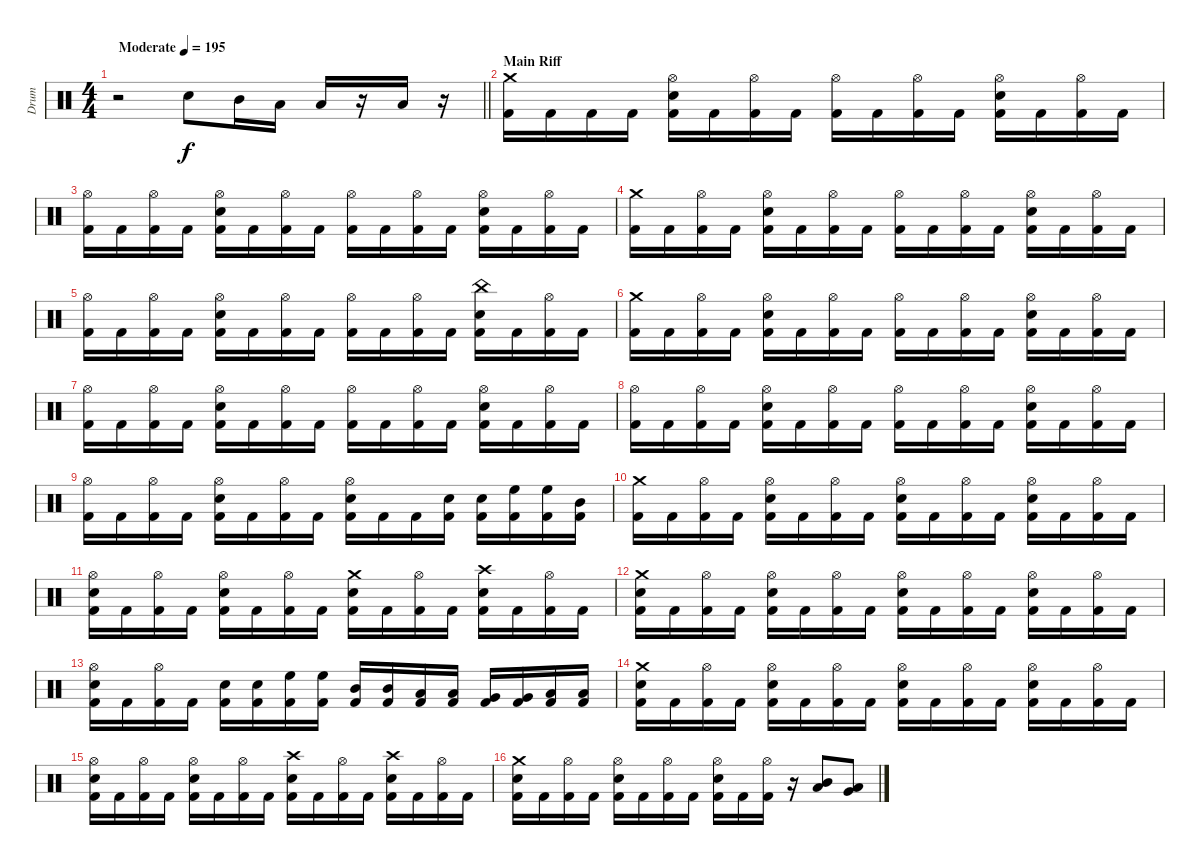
\track ("Drum" "Drum") {instrument percussion}
\staff {score}
\articulation defaults
\ts (4 4)
\tempo (195 "Moderate")
\clef neutral
\barLineRight lightlight
\ks c
r.2{dy f} "Snare (hit) 2".8 "Mid Tom (hit)".16 "Low Tom (hit)".16 "Low Floor Tom (hit)".16 r.16 "Low Floor Tom (hit)".16 r.16 |
\section ("" "Main Riff")
("Crash medium (hit)" "Kick (hit) 2").16 "Kick (hit) 2".16 "Kick (hit) 2".16 "Kick (hit) 2".16 ("Hi-Hat (open)" "Snare (hit) 2" "Kick (hit) 2").16 "Kick (hit) 2".16 ("Hi-Hat (open)" "Kick (hit) 2").16 "Kick (hit) 2".16 ("Hi-Hat (open)" "Kick (hit) 2").16 "Kick (hit) 2".16 ("Hi-Hat (open)" "Kick (hit) 2").16 "Kick (hit) 2".16 ("Hi-Hat (open)" "Snare (hit) 2" "Kick (hit) 2").16 "Kick (hit) 2".16 ("Hi-Hat (open)" "Kick (hit) 2").16 "Kick (hit) 2".16 |
("Hi-Hat (open)" "Kick (hit) 2").16 "Kick (hit) 2".16 ("Hi-Hat (open)" "Kick (hit) 2").16 "Kick (hit) 2".16 ("Hi-Hat (open)" "Snare (hit) 2" "Kick (hit) 2").16 "Kick (hit) 2".16 ("Hi-Hat (open)" "Kick (hit) 2").16 "Kick (hit) 2".16 ("Hi-Hat (open)" "Kick (hit) 2").16 "Kick (hit) 2".16 ("Hi-Hat (open)" "Kick (hit) 2").16 "Kick (hit) 2".16 ("Hi-Hat (open)" "Snare (hit) 2" "Kick (hit) 2").16 "Kick (hit) 2".16 ("Hi-Hat (open)" "Kick (hit) 2").16 "Kick (hit) 2".16 |
("Crash medium (hit)" "Kick (hit) 2").16 "Kick (hit) 2".16 ("Hi-Hat (open)" "Kick (hit) 2").16 "Kick (hit) 2".16 ("Hi-Hat (open)" "Snare (hit) 2" "Kick (hit) 2").16 "Kick (hit) 2".16 ("Hi-Hat (open)" "Kick (hit) 2").16 "Kick (hit) 2".16 ("Hi-Hat (open)" "Kick (hit) 2").16 "Kick (hit) 2".16 ("Hi-Hat (open)" "Kick (hit) 2").16 "Kick (hit) 2".16 ("Hi-Hat (open)" "Snare (hit) 2" "Kick (hit) 2").16 "Kick (hit) 2".16 ("Hi-Hat (open)" "Kick (hit) 2").16 "Kick (hit) 2".16 |
("Hi-Hat (open)" "Kick (hit) 2").16 "Kick (hit) 2".16 ("Hi-Hat (open)" "Kick (hit) 2").16 "Kick (hit) 2".16 ("Hi-Hat (open)" "Snare (hit) 2" "Kick (hit) 2").16 "Kick (hit) 2".16 ("Hi-Hat (open)" "Kick (hit) 2").16 "Kick (hit) 2".16 ("Hi-Hat (open)" "Kick (hit) 2").16 "Kick (hit) 2".16 ("Hi-Hat (open)" "Kick (hit) 2").16 "Kick (hit) 2".16 ("China (hit)" "Snare (hit) 2" "Kick (hit) 2").16 "Kick (hit) 2".16 ("Hi-Hat (open)" "Kick (hit) 2").16 "Kick (hit) 2".16 |
("Crash medium (hit)" "Kick (hit) 2").16 "Kick (hit) 2".16 ("Hi-Hat (open)" "Kick (hit) 2").16 "Kick (hit) 2".16 ("Hi-Hat (open)" "Snare (hit) 2" "Kick (hit) 2").16 "Kick (hit) 2".16 ("Hi-Hat (open)" "Kick (hit) 2").16 "Kick (hit) 2".16 ("Hi-Hat (open)" "Kick (hit) 2").16 "Kick (hit) 2".16 ("Hi-Hat (open)" "Kick (hit) 2").16 "Kick (hit) 2".16 ("Hi-Hat (open)" "Snare (hit) 2" "Kick (hit) 2").16 "Kick (hit) 2".16 ("Hi-Hat (open)" "Kick (hit) 2").16 "Kick (hit) 2".16 |
("Hi-Hat (open)" "Kick (hit) 2").16 "Kick (hit) 2".16 ("Hi-Hat (open)" "Kick (hit) 2").16 "Kick (hit) 2".16 ("Hi-Hat (open)" "Snare (hit) 2" "Kick (hit) 2").16 "Kick (hit) 2".16 ("Hi-Hat (open)" "Kick (hit) 2").16 "Kick (hit) 2".16 ("Hi-Hat (open)" "Kick (hit) 2").16 "Kick (hit) 2".16 ("Hi-Hat (open)" "Kick (hit) 2").16 "Kick (hit) 2".16 ("Hi-Hat (open)" "Snare (hit) 2" "Kick (hit) 2").16 "Kick (hit) 2".16 ("Hi-Hat (open)" "Kick (hit) 2").16 "Kick (hit) 2".16 |
("Hi-Hat (open)" "Kick (hit) 2").16 "Kick (hit) 2".16 ("Hi-Hat (open)" "Kick (hit) 2").16 "Kick (hit) 2".16 ("Hi-Hat (open)" "Snare (hit) 2" "Kick (hit) 2").16 "Kick (hit) 2".16 ("Hi-Hat (open)" "Kick (hit) 2").16 "Kick (hit) 2".16 ("Hi-Hat (open)" "Kick (hit) 2").16 "Kick (hit) 2".16 ("Hi-Hat (open)" "Kick (hit) 2").16 "Kick (hit) 2".16 ("Hi-Hat (open)" "Snare (hit) 2" "Kick (hit) 2").16 "Kick (hit) 2".16 ("Hi-Hat (open)" "Kick (hit) 2").16 "Kick (hit) 2".16 |
("Hi-Hat (open)" "Kick (hit) 2").16 "Kick (hit) 2".16 ("Hi-Hat (open)" "Kick (hit) 2").16 "Kick (hit) 2".16 ("Hi-Hat (open)" "Snare (hit) 2" "Kick (hit) 2").16 "Kick (hit) 2".16 ("Hi-Hat (open)" "Kick (hit) 2").16 "Kick (hit) 2".16 ("Hi-Hat (open)" "Snare (hit) 2" "Kick (hit) 2").16 "Kick (hit) 2".16 "Kick (hit) 2".16 ("Snare (hit) 2" "Kick (hit) 2").16 ("Snare (hit) 2" "Kick (hit) 2").16 ("High Floor Tom (hit)" "Kick (hit) 2").16 ("High Floor Tom (hit)" "Kick (hit) 2").16 ("Mid Tom (hit)" "Kick (hit) 2").16 |
("Crash medium (hit)" "Kick (hit) 2").16 "Kick (hit) 2".16 ("Hi-Hat (open)" "Kick (hit) 2").16 "Kick (hit) 2".16 ("Hi-Hat (open)" "Snare (hit) 2" "Kick (hit) 2").16 "Kick (hit) 2".16 ("Hi-Hat (open)" "Kick (hit) 2").16 "Kick (hit) 2".16 ("Hi-Hat (open)" "Snare (hit) 2" "Kick (hit) 2").16 "Kick (hit) 2".16 ("Hi-Hat (open)" "Kick (hit) 2").16 "Kick (hit) 2".16 ("Hi-Hat (open)" "Snare (hit) 2" "Kick (hit) 2").16 "Kick (hit) 2".16 ("Hi-Hat (open)" "Kick (hit) 2").16 "Kick (hit) 2".16 |
("Hi-Hat (open)" "Snare (hit) 2" "Kick (hit) 2").16 "Kick (hit) 2".16 ("Hi-Hat (open)" "Kick (hit) 2").16 "Kick (hit) 2".16 ("Hi-Hat (open)" "Snare (hit) 2" "Kick (hit) 2").16 "Kick (hit) 2".16 ("Hi-Hat (open)" "Kick (hit) 2").16 "Kick (hit) 2".16 ("Crash medium (hit)" "Snare (hit) 2" "Kick (hit) 2").16 "Kick (hit) 2".16 ("Hi-Hat (open)" "Kick (hit) 2").16 "Kick (hit) 2".16 ("Crash high (hit)" "Snare (hit) 2" "Kick (hit) 2").16 "Kick (hit) 2".16 ("Hi-Hat (open)" "Kick (hit) 2").16 "Kick (hit) 2".16 |
("Crash medium (hit)" "Snare (hit) 2" "Kick (hit) 2").16 "Kick (hit) 2".16 ("Hi-Hat (open)" "Kick (hit) 2").16 "Kick (hit) 2".16 ("Hi-Hat (open)" "Snare (hit) 2" "Kick (hit) 2").16 "Kick (hit) 2".16 ("Hi-Hat (open)" "Kick (hit) 2").16 "Kick (hit) 2".16 ("Hi-Hat (open)" "Snare (hit) 2" "Kick (hit) 2").16 "Kick (hit) 2".16 ("Hi-Hat (open)" "Kick (hit) 2").16 "Kick (hit) 2".16 ("Hi-Hat (open)" "Snare (hit) 2" "Kick (hit) 2").16 "Kick (hit) 2".16 ("Hi-Hat (open)" "Kick (hit) 2").16 "Kick (hit) 2".16 |
("Hi-Hat (open)" "Snare (hit) 2" "Kick (hit) 2").16 "Kick (hit) 2".16 ("Hi-Hat (open)" "Kick (hit) 2").16 "Kick (hit) 2".16 ("Snare (hit) 2" "Kick (hit) 2").16 ("Snare (hit) 2" "Kick (hit) 2").16 ("High Floor Tom (hit)" "Kick (hit) 2").16 ("High Floor Tom (hit)" "Kick (hit) 2").16 ("Mid Tom (hit)" "Kick (hit) 2").16 ("Mid Tom (hit)" "Kick (hit) 2").16 ("Low Tom (hit)" "Kick (hit) 2").16 ("Low Tom (hit)" "Kick (hit) 2").16 ("Very Low Tom (hit)" "Kick (hit) 2").16 ("Very Low Tom (hit)" "Kick (hit) 2").16 ("Low Floor Tom (hit)" "Kick (hit) 2").16 ("Low Floor Tom (hit)" "Kick (hit) 2").16 |
("Crash medium (hit)" "Snare (hit) 2" "Kick (hit) 2").16 "Kick (hit) 2".16 ("Hi-Hat (open)" "Kick (hit) 2").16 "Kick (hit) 2".16 ("Hi-Hat (open)" "Snare (hit) 2" "Kick (hit) 2").16 "Kick (hit) 2".16 ("Hi-Hat (open)" "Kick (hit) 2").16 "Kick (hit) 2".16 ("Hi-Hat (open)" "Snare (hit) 2" "Kick (hit) 2").16 "Kick (hit) 2".16 ("Hi-Hat (open)" "Kick (hit) 2").16 "Kick (hit) 2".16 ("Hi-Hat (open)" "Snare (hit) 2" "Kick (hit) 2").16 "Kick (hit) 2".16 ("Hi-Hat (open)" "Kick (hit) 2").16 "Kick (hit) 2".16 |
("Hi-Hat (open)" "Snare (hit) 2" "Kick (hit) 2").16 "Kick (hit) 2".16 ("Hi-Hat (open)" "Kick (hit) 2").16 "Kick (hit) 2".16 ("Hi-Hat (open)" "Snare (hit) 2" "Kick (hit) 2").16 "Kick (hit) 2".16 ("Hi-Hat (open)" "Kick (hit) 2").16 "Kick (hit) 2".16 ("Crash high (hit)" "Snare (hit) 2" "Kick (hit) 2").16 "Kick (hit) 2".16 ("Hi-Hat (open)" "Kick (hit) 2").16 "Kick (hit) 2".16 ("Crash high (hit)" "Snare (hit) 2" "Kick (hit) 2").16 "Kick (hit) 2".16 ("Hi-Hat (open)" "Kick (hit) 2").16 "Kick (hit) 2".16 |
("Crash medium (hit)" "Snare (hit) 2" "Kick (hit) 2").16 "Kick (hit) 2".16 ("Hi-Hat (open)" "Kick (hit) 2").16 "Kick (hit) 2".16 ("Hi-Hat (open)" "Snare (hit) 2" "Kick (hit) 2").16 "Kick (hit) 2".16 ("Hi-Hat (open)" "Kick (hit) 2").16 "Kick (hit) 2".16 ("Hi-Hat (open)" "Snare (hit) 2" "Kick (hit) 2").16 "Kick (hit) 2".16 ("Hi-Hat (open)" "Kick (hit) 2").16 r.16 ("Mid Tom (hit)" "Low Tom (hit)").8 ("Low Tom (hit)" "Very Low Tom (hit)").8
